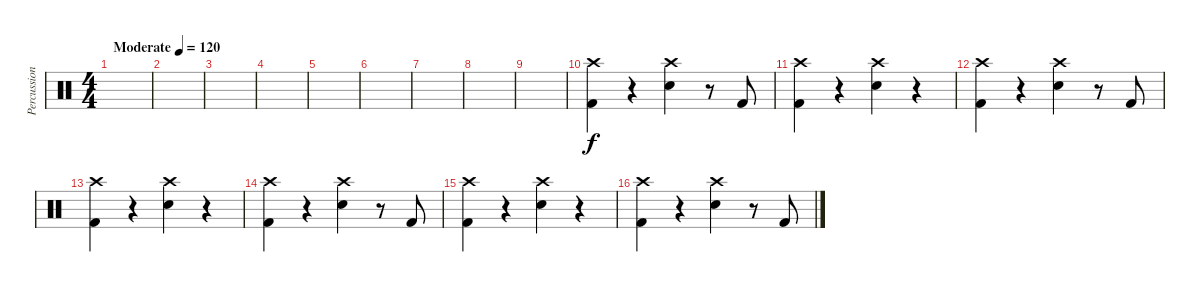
\track ("Percussion" "Percussion") {instrument percussion}
\staff {score}
\articulation defaults
\ts (4 4)
\tempo (120 "Moderate")
\clef neutral
\ks c
|
|
|
|
|
|
|
|
|
("Crash high (hit)" "Kick (hit) 2").4 r.4 ("Crash high (hit)" "Electric Snare (hit)").4 r.8 "Kick (hit) 2".8 |
("Crash high (hit)" "Kick (hit) 2").4 r.4 ("Crash high (hit)" "Electric Snare (hit)").4 r.4 |
("Crash high (hit)" "Kick (hit) 2").4 r.4 ("Crash high (hit)" "Electric Snare (hit)").4 r.8 "Kick (hit) 2".8 |
("Crash high (hit)" "Kick (hit) 2").4 r.4 ("Crash high (hit)" "Electric Snare (hit)").4 r.4 |
("Crash high (hit)" "Kick (hit) 2").4 r.4 ("Crash high (hit)" "Electric Snare (hit)").4 r.8 "Kick (hit) 2".8 |
("Crash high (hit)" "Kick (hit) 2").4 r.4 ("Crash high (hit)" "Electric Snare (hit)").4 r.4 |
("Crash high (hit)" "Kick (hit) 2").4 r.4 ("Crash high (hit)" "Electric Snare (hit)").4 r.8 "Kick (hit) 2".8
